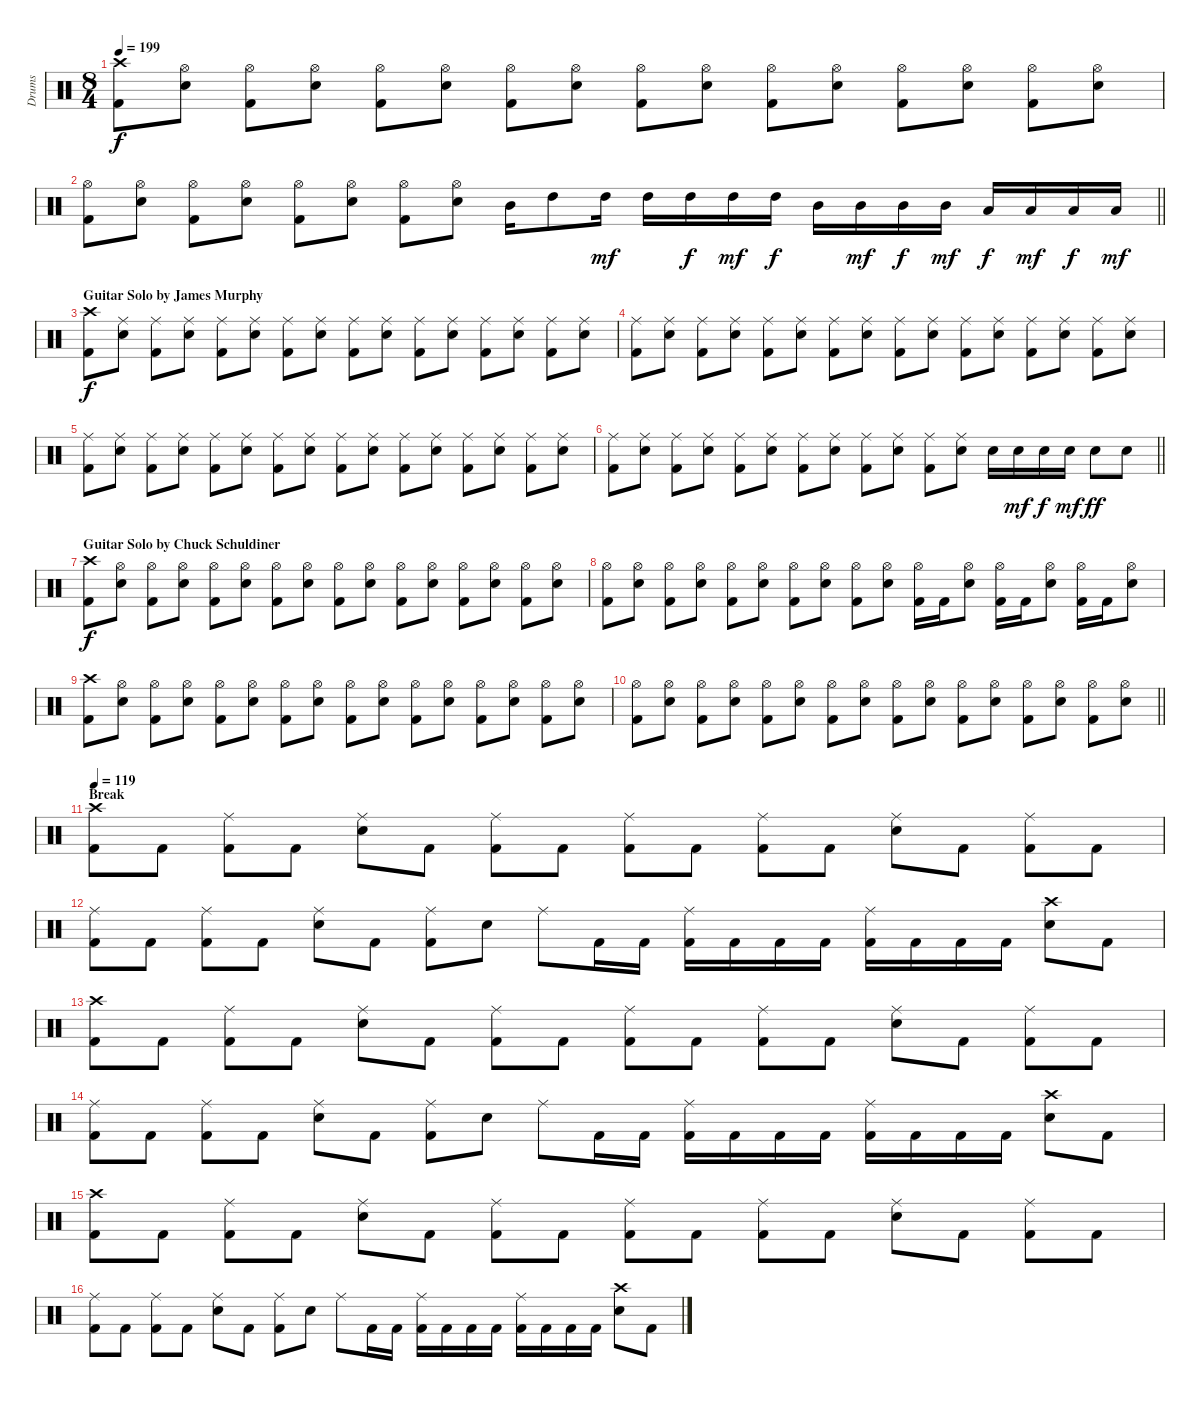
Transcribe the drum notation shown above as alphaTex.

\track ("Drums" "Drums") {instrument percussion}
\staff {score}
\articulation defaults
\ts (8 4)
\tempo 199
\clef neutral
\ks c
("Crash high (hit)" "Kick (hit) 2").8{dy f} ("Hi-Hat (open)" "Snare (hit) 2").8 ("Hi-Hat (open)" "Kick (hit) 2").8 ("Hi-Hat (open)" "Snare (hit) 2").8 ("Hi-Hat (open)" "Kick (hit) 2").8 ("Hi-Hat (open)" "Snare (hit) 2").8 ("Hi-Hat (open)" "Kick (hit) 2").8 ("Hi-Hat (open)" "Snare (hit) 2").8 ("Hi-Hat (open)" "Kick (hit) 2").8 ("Hi-Hat (open)" "Snare (hit) 2").8 ("Hi-Hat (open)" "Kick (hit) 2").8 ("Hi-Hat (open)" "Snare (hit) 2").8 ("Hi-Hat (open)" "Kick (hit) 2").8 ("Hi-Hat (open)" "Snare (hit) 2").8 ("Hi-Hat (open)" "Kick (hit) 2").8 ("Hi-Hat (open)" "Snare (hit) 2").8 |
\barLineRight lightlight
("Hi-Hat (open)" "Kick (hit) 2").8 ("Hi-Hat (open)" "Snare (hit) 2").8 ("Hi-Hat (open)" "Kick (hit) 2").8 ("Hi-Hat (open)" "Snare (hit) 2").8 ("Hi-Hat (open)" "Kick (hit) 2").8 ("Hi-Hat (open)" "Snare (hit) 2").8 ("Hi-Hat (open)" "Kick (hit) 2").8 ("Hi-Hat (open)" "Snare (hit) 2").8 "Mid Tom (hit)".16 "High Tom (hit)".8 "High Tom (hit)".16{dy mf} "High Tom (hit)".16 "High Tom (hit)".16{dy f} "High Tom (hit)".16{dy mf} "High Tom (hit)".16{dy f} "Mid Tom (hit)".16 "Mid Tom (hit)".16{dy mf} "Mid Tom (hit)".16{dy f} "Mid Tom (hit)".16{dy mf} "Low Tom (hit)".16{dy f} "Low Tom (hit)".16{dy mf} "Low Tom (hit)".16{dy f} "Low Tom (hit)".16{dy mf} |
\section ("" "Guitar Solo by James Murphy")
("Crash high (hit)" "Kick (hit) 2").8{dy f} ("Ride (middle)" "Snare (hit) 2").8 ("Ride (middle)" "Kick (hit) 2").8 ("Ride (middle)" "Snare (hit) 2").8 ("Ride (middle)" "Kick (hit) 2").8 ("Ride (middle)" "Snare (hit) 2").8 ("Ride (middle)" "Kick (hit) 2").8 ("Ride (middle)" "Snare (hit) 2").8 ("Ride (middle)" "Kick (hit) 2").8 ("Ride (middle)" "Snare (hit) 2").8 ("Ride (middle)" "Kick (hit) 2").8 ("Ride (middle)" "Snare (hit) 2").8 ("Ride (middle)" "Kick (hit) 2").8 ("Ride (middle)" "Snare (hit) 2").8 ("Ride (middle)" "Kick (hit) 2").8 ("Ride (middle)" "Snare (hit) 2").8 |
("Ride (middle)" "Kick (hit) 2").8 ("Ride (middle)" "Snare (hit) 2").8 ("Ride (middle)" "Kick (hit) 2").8 ("Ride (middle)" "Snare (hit) 2").8 ("Ride (middle)" "Kick (hit) 2").8 ("Ride (middle)" "Snare (hit) 2").8 ("Ride (middle)" "Kick (hit) 2").8 ("Ride (middle)" "Snare (hit) 2").8 ("Ride (middle)" "Kick (hit) 2").8 ("Ride (middle)" "Snare (hit) 2").8 ("Ride (middle)" "Kick (hit) 2").8 ("Ride (middle)" "Snare (hit) 2").8 ("Ride (middle)" "Kick (hit) 2").8 ("Ride (middle)" "Snare (hit) 2").8 ("Ride (middle)" "Kick (hit) 2").8 ("Ride (middle)" "Snare (hit) 2").8 |
("Ride (middle)" "Kick (hit) 2").8 ("Ride (middle)" "Snare (hit) 2").8 ("Ride (middle)" "Kick (hit) 2").8 ("Ride (middle)" "Snare (hit) 2").8 ("Ride (middle)" "Kick (hit) 2").8 ("Ride (middle)" "Snare (hit) 2").8 ("Ride (middle)" "Kick (hit) 2").8 ("Ride (middle)" "Snare (hit) 2").8 ("Ride (middle)" "Kick (hit) 2").8 ("Ride (middle)" "Snare (hit) 2").8 ("Ride (middle)" "Kick (hit) 2").8 ("Ride (middle)" "Snare (hit) 2").8 ("Ride (middle)" "Kick (hit) 2").8 ("Ride (middle)" "Snare (hit) 2").8 ("Ride (middle)" "Kick (hit) 2").8 ("Ride (middle)" "Snare (hit) 2").8 |
\barLineRight lightlight
("Ride (middle)" "Kick (hit) 2").8 ("Ride (middle)" "Snare (hit) 2").8 ("Ride (middle)" "Kick (hit) 2").8 ("Ride (middle)" "Snare (hit) 2").8 ("Ride (middle)" "Kick (hit) 2").8 ("Ride (middle)" "Snare (hit) 2").8 ("Ride (middle)" "Kick (hit) 2").8 ("Ride (middle)" "Snare (hit) 2").8 ("Ride (middle)" "Kick (hit) 2").8 ("Ride (middle)" "Snare (hit) 2").8 ("Ride (middle)" "Kick (hit) 2").8 ("Ride (middle)" "Snare (hit) 2").8 "Snare (hit) 2".16 "Snare (hit) 2".16{dy mf} "Snare (hit) 2".16{dy f} "Snare (hit) 2".16{dy mf} "Snare (hit) 2".8{dy ff} "Snare (hit) 2".8 |
\section ("" "Guitar Solo by Chuck Schuldiner")
("Crash high (hit)" "Kick (hit) 2").8{dy f} ("Hi-Hat (open)" "Snare (hit) 2").8 ("Hi-Hat (open)" "Kick (hit) 2").8 ("Hi-Hat (open)" "Snare (hit) 2").8 ("Hi-Hat (open)" "Kick (hit) 2").8 ("Hi-Hat (open)" "Snare (hit) 2").8 ("Hi-Hat (open)" "Kick (hit) 2").8 ("Hi-Hat (open)" "Snare (hit) 2").8 ("Hi-Hat (open)" "Kick (hit) 2").8 ("Hi-Hat (open)" "Snare (hit) 2").8 ("Hi-Hat (open)" "Kick (hit) 2").8 ("Hi-Hat (open)" "Snare (hit) 2").8 ("Hi-Hat (open)" "Kick (hit) 2").8 ("Hi-Hat (open)" "Snare (hit) 2").8 ("Hi-Hat (open)" "Kick (hit) 2").8 ("Hi-Hat (open)" "Snare (hit) 2").8 |
("Hi-Hat (open)" "Kick (hit) 2").8 ("Hi-Hat (open)" "Snare (hit) 2").8 ("Hi-Hat (open)" "Kick (hit) 2").8 ("Hi-Hat (open)" "Snare (hit) 2").8 ("Hi-Hat (open)" "Kick (hit) 2").8 ("Hi-Hat (open)" "Snare (hit) 2").8 ("Hi-Hat (open)" "Kick (hit) 2").8 ("Hi-Hat (open)" "Snare (hit) 2").8 ("Hi-Hat (open)" "Kick (hit) 2").8 ("Hi-Hat (open)" "Snare (hit) 2").8 ("Hi-Hat (open)" "Kick (hit) 2").16 "Kick (hit) 2".16 ("Hi-Hat (open)" "Snare (hit) 2").8 ("Hi-Hat (open)" "Kick (hit) 2").16 "Kick (hit) 2".16 ("Hi-Hat (open)" "Snare (hit) 2").8 ("Hi-Hat (open)" "Kick (hit) 2").16 "Kick (hit) 2".16 ("Hi-Hat (open)" "Snare (hit) 2").8 |
("Crash high (hit)" "Kick (hit) 2").8 ("Hi-Hat (open)" "Snare (hit) 2").8 ("Hi-Hat (open)" "Kick (hit) 2").8 ("Hi-Hat (open)" "Snare (hit) 2").8 ("Hi-Hat (open)" "Kick (hit) 2").8 ("Hi-Hat (open)" "Snare (hit) 2").8 ("Hi-Hat (open)" "Kick (hit) 2").8 ("Hi-Hat (open)" "Snare (hit) 2").8 ("Hi-Hat (open)" "Kick (hit) 2").8 ("Hi-Hat (open)" "Snare (hit) 2").8 ("Hi-Hat (open)" "Kick (hit) 2").8 ("Hi-Hat (open)" "Snare (hit) 2").8 ("Hi-Hat (open)" "Kick (hit) 2").8 ("Hi-Hat (open)" "Snare (hit) 2").8 ("Hi-Hat (open)" "Kick (hit) 2").8 ("Hi-Hat (open)" "Snare (hit) 2").8 |
\barLineRight lightlight
("Hi-Hat (open)" "Kick (hit) 2").8 ("Hi-Hat (open)" "Snare (hit) 2").8 ("Hi-Hat (open)" "Kick (hit) 2").8 ("Hi-Hat (open)" "Snare (hit) 2").8 ("Hi-Hat (open)" "Kick (hit) 2").8 ("Hi-Hat (open)" "Snare (hit) 2").8 ("Hi-Hat (open)" "Kick (hit) 2").8 ("Hi-Hat (open)" "Snare (hit) 2").8 ("Hi-Hat (open)" "Kick (hit) 2").8 ("Hi-Hat (open)" "Snare (hit) 2").8 ("Hi-Hat (open)" "Kick (hit) 2").8 ("Hi-Hat (open)" "Snare (hit) 2").8 ("Hi-Hat (open)" "Kick (hit) 2").8 ("Hi-Hat (open)" "Snare (hit) 2").8 ("Hi-Hat (open)" "Kick (hit) 2").8 ("Hi-Hat (open)" "Snare (hit) 2").8 |
\section ("" "Break")
\tempo 119
("Crash high (hit)" "Kick (hit) 2").8 "Kick (hit) 2".8 ("Ride (middle)" "Kick (hit) 2").8 "Kick (hit) 2".8 ("Ride (middle)" "Snare (hit) 2").8 "Kick (hit) 2".8 ("Ride (middle)" "Kick (hit) 2").8 "Kick (hit) 2".8 ("Ride (middle)" "Kick (hit) 2").8 "Kick (hit) 2".8 ("Ride (middle)" "Kick (hit) 2").8 "Kick (hit) 2".8 ("Ride (middle)" "Snare (hit) 2").8 "Kick (hit) 2".8 ("Ride (middle)" "Kick (hit) 2").8 "Kick (hit) 2".8 |
("Ride (middle)" "Kick (hit) 2").8 "Kick (hit) 2".8 ("Ride (middle)" "Kick (hit) 2").8 "Kick (hit) 2".8 ("Ride (middle)" "Snare (hit) 2").8 "Kick (hit) 2".8 ("Ride (middle)" "Kick (hit) 2").8 "Snare (hit) 2".8 "Ride (middle)".8 "Kick (hit) 2".16 "Kick (hit) 2".16 ("Ride (middle)" "Kick (hit) 2").16 "Kick (hit) 2".16 "Kick (hit) 2".16 "Kick (hit) 2".16 ("Ride (middle)" "Kick (hit) 2").16 "Kick (hit) 2".16 "Kick (hit) 2".16 "Kick (hit) 2".16 ("Crash high (hit)" "Snare (hit) 2").8 "Kick (hit) 2".8 |
("Crash high (hit)" "Kick (hit) 2").8 "Kick (hit) 2".8 ("Ride (middle)" "Kick (hit) 2").8 "Kick (hit) 2".8 ("Ride (middle)" "Snare (hit) 2").8 "Kick (hit) 2".8 ("Ride (middle)" "Kick (hit) 2").8 "Kick (hit) 2".8 ("Ride (middle)" "Kick (hit) 2").8 "Kick (hit) 2".8 ("Ride (middle)" "Kick (hit) 2").8 "Kick (hit) 2".8 ("Ride (middle)" "Snare (hit) 2").8 "Kick (hit) 2".8 ("Ride (middle)" "Kick (hit) 2").8 "Kick (hit) 2".8 |
("Ride (middle)" "Kick (hit) 2").8 "Kick (hit) 2".8 ("Ride (middle)" "Kick (hit) 2").8 "Kick (hit) 2".8 ("Ride (middle)" "Snare (hit) 2").8 "Kick (hit) 2".8 ("Ride (middle)" "Kick (hit) 2").8 "Snare (hit) 2".8 "Ride (middle)".8 "Kick (hit) 2".16 "Kick (hit) 2".16 ("Ride (middle)" "Kick (hit) 2").16 "Kick (hit) 2".16 "Kick (hit) 2".16 "Kick (hit) 2".16 ("Ride (middle)" "Kick (hit) 2").16 "Kick (hit) 2".16 "Kick (hit) 2".16 "Kick (hit) 2".16 ("Crash high (hit)" "Snare (hit) 2").8 "Kick (hit) 2".8 |
("Crash high (hit)" "Kick (hit) 2").8 "Kick (hit) 2".8 ("Ride (middle)" "Kick (hit) 2").8 "Kick (hit) 2".8 ("Ride (middle)" "Snare (hit) 2").8 "Kick (hit) 2".8 ("Ride (middle)" "Kick (hit) 2").8 "Kick (hit) 2".8 ("Ride (middle)" "Kick (hit) 2").8 "Kick (hit) 2".8 ("Ride (middle)" "Kick (hit) 2").8 "Kick (hit) 2".8 ("Ride (middle)" "Snare (hit) 2").8 "Kick (hit) 2".8 ("Ride (middle)" "Kick (hit) 2").8 "Kick (hit) 2".8 |
("Ride (middle)" "Kick (hit) 2").8 "Kick (hit) 2".8 ("Ride (middle)" "Kick (hit) 2").8 "Kick (hit) 2".8 ("Ride (middle)" "Snare (hit) 2").8 "Kick (hit) 2".8 ("Ride (middle)" "Kick (hit) 2").8 "Snare (hit) 2".8 "Ride (middle)".8 "Kick (hit) 2".16 "Kick (hit) 2".16 ("Ride (middle)" "Kick (hit) 2").16 "Kick (hit) 2".16 "Kick (hit) 2".16 "Kick (hit) 2".16 ("Ride (middle)" "Kick (hit) 2").16 "Kick (hit) 2".16 "Kick (hit) 2".16 "Kick (hit) 2".16 ("Crash high (hit)" "Snare (hit) 2").8 "Kick (hit) 2".8
